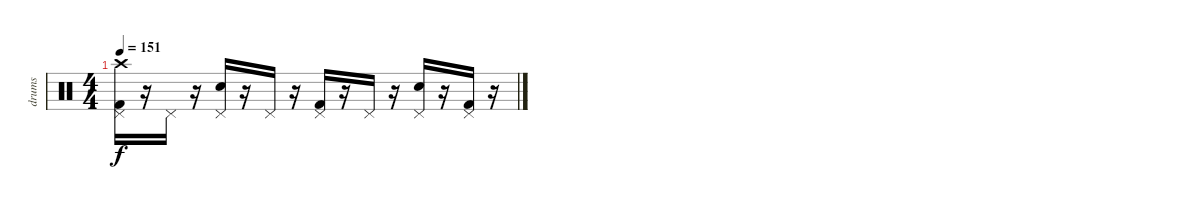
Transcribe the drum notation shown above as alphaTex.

\track ("drums" "drums") {instrument percussion}
\staff {score}
\articulation defaults
\ts (4 4)
\tempo 151
\clef neutral
\ks c
("Kick (hit) 2" "Pedal Hi-Hat (hit)" "Crash high (hit)").16{dy f} r.16 "Pedal Hi-Hat (hit)".16 r.16 ("Electric Snare (hit)" "Pedal Hi-Hat (hit)").16 r.16 "Pedal Hi-Hat (hit)".16 r.16 ("Kick (hit) 2" "Pedal Hi-Hat (hit)").16 r.16 "Pedal Hi-Hat (hit)".16 r.16 ("Electric Snare (hit)" "Pedal Hi-Hat (hit)").16 r.16 ("Kick (hit) 2" "Pedal Hi-Hat (hit)").16 r.16
